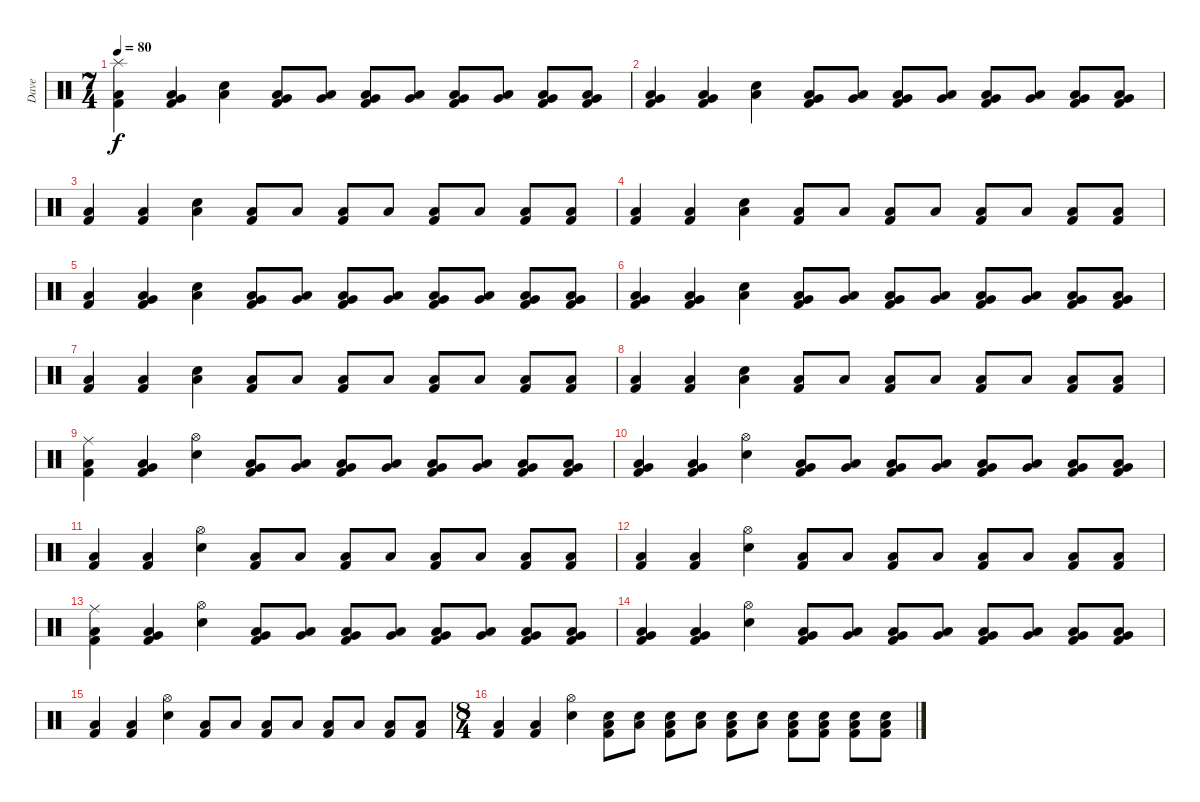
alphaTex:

\track ("Dave" "Dave") {instrument percussion}
\staff {score}
\articulation defaults
\ts (7 4)
\tempo 80
\clef neutral
\ks c
("Splash (hit)" "Low Floor Tom (hit)" "Kick (hit) 2").4{dy f} ("Very Low Tom (hit)" "Low Floor Tom (hit)" "Kick (hit) 2").4 ("Low Floor Tom (hit)" "Electric Snare (hit)").4 ("Very Low Tom (hit)" "Low Floor Tom (hit)" "Kick (hit) 2").8 ("Very Low Tom (hit)" "Low Floor Tom (hit)").8 ("Very Low Tom (hit)" "Low Floor Tom (hit)" "Kick (hit) 2").8 ("Very Low Tom (hit)" "Low Floor Tom (hit)").8 ("Very Low Tom (hit)" "Low Floor Tom (hit)" "Kick (hit) 2").8 ("Very Low Tom (hit)" "Low Floor Tom (hit)").8 ("Very Low Tom (hit)" "Low Floor Tom (hit)" "Kick (hit) 2").8 ("Very Low Tom (hit)" "Low Floor Tom (hit)" "Kick (hit) 2").8 |
("Very Low Tom (hit)" "Low Floor Tom (hit)" "Kick (hit) 2").4 ("Very Low Tom (hit)" "Low Floor Tom (hit)" "Kick (hit) 2").4 ("Low Floor Tom (hit)" "Electric Snare (hit)").4 ("Very Low Tom (hit)" "Low Floor Tom (hit)" "Kick (hit) 2").8 ("Very Low Tom (hit)" "Low Floor Tom (hit)").8 ("Very Low Tom (hit)" "Low Floor Tom (hit)" "Kick (hit) 2").8 ("Very Low Tom (hit)" "Low Floor Tom (hit)").8 ("Very Low Tom (hit)" "Low Floor Tom (hit)" "Kick (hit) 2").8 ("Very Low Tom (hit)" "Low Floor Tom (hit)").8 ("Very Low Tom (hit)" "Low Floor Tom (hit)" "Kick (hit) 2").8 ("Very Low Tom (hit)" "Low Floor Tom (hit)" "Kick (hit) 2").8 |
("Low Floor Tom (hit)" "Kick (hit) 2").4 ("Low Floor Tom (hit)" "Kick (hit) 2").4 ("Low Floor Tom (hit)" "Electric Snare (hit)").4 ("Low Floor Tom (hit)" "Kick (hit) 2").8 "Low Floor Tom (hit)".8 ("Low Floor Tom (hit)" "Kick (hit) 2").8 "Low Floor Tom (hit)".8 ("Low Floor Tom (hit)" "Kick (hit) 2").8 "Low Floor Tom (hit)".8 ("Low Floor Tom (hit)" "Kick (hit) 2").8 ("Low Floor Tom (hit)" "Kick (hit) 2").8 |
("Low Floor Tom (hit)" "Kick (hit) 2").4 ("Low Floor Tom (hit)" "Kick (hit) 2").4 ("Low Floor Tom (hit)" "Electric Snare (hit)").4 ("Low Floor Tom (hit)" "Kick (hit) 2").8 "Low Floor Tom (hit)".8 ("Low Floor Tom (hit)" "Kick (hit) 2").8 "Low Floor Tom (hit)".8 ("Low Floor Tom (hit)" "Kick (hit) 2").8 "Low Floor Tom (hit)".8 ("Low Floor Tom (hit)" "Kick (hit) 2").8 ("Low Floor Tom (hit)" "Kick (hit) 2").8 |
("Low Floor Tom (hit)" "Kick (hit) 2").4 ("Very Low Tom (hit)" "Low Floor Tom (hit)" "Kick (hit) 2").4 ("Low Floor Tom (hit)" "Electric Snare (hit)").4 ("Very Low Tom (hit)" "Low Floor Tom (hit)" "Kick (hit) 2").8 ("Very Low Tom (hit)" "Low Floor Tom (hit)").8 ("Very Low Tom (hit)" "Low Floor Tom (hit)" "Kick (hit) 2").8 ("Very Low Tom (hit)" "Low Floor Tom (hit)").8 ("Very Low Tom (hit)" "Low Floor Tom (hit)" "Kick (hit) 2").8 ("Very Low Tom (hit)" "Low Floor Tom (hit)").8 ("Very Low Tom (hit)" "Low Floor Tom (hit)" "Kick (hit) 2").8 ("Very Low Tom (hit)" "Low Floor Tom (hit)" "Kick (hit) 2").8 |
("Very Low Tom (hit)" "Low Floor Tom (hit)" "Kick (hit) 2").4 ("Very Low Tom (hit)" "Low Floor Tom (hit)" "Kick (hit) 2").4 ("Low Floor Tom (hit)" "Electric Snare (hit)").4 ("Very Low Tom (hit)" "Low Floor Tom (hit)" "Kick (hit) 2").8 ("Very Low Tom (hit)" "Low Floor Tom (hit)").8 ("Very Low Tom (hit)" "Low Floor Tom (hit)" "Kick (hit) 2").8 ("Very Low Tom (hit)" "Low Floor Tom (hit)").8 ("Very Low Tom (hit)" "Low Floor Tom (hit)" "Kick (hit) 2").8 ("Very Low Tom (hit)" "Low Floor Tom (hit)").8 ("Very Low Tom (hit)" "Low Floor Tom (hit)" "Kick (hit) 2").8 ("Very Low Tom (hit)" "Low Floor Tom (hit)" "Kick (hit) 2").8 |
("Low Floor Tom (hit)" "Kick (hit) 2").4 ("Low Floor Tom (hit)" "Kick (hit) 2").4 ("Low Floor Tom (hit)" "Electric Snare (hit)").4 ("Low Floor Tom (hit)" "Kick (hit) 2").8 "Low Floor Tom (hit)".8 ("Low Floor Tom (hit)" "Kick (hit) 2").8 "Low Floor Tom (hit)".8 ("Low Floor Tom (hit)" "Kick (hit) 2").8 "Low Floor Tom (hit)".8 ("Low Floor Tom (hit)" "Kick (hit) 2").8 ("Low Floor Tom (hit)" "Kick (hit) 2").8 |
("Low Floor Tom (hit)" "Kick (hit) 2").4 ("Low Floor Tom (hit)" "Kick (hit) 2").4 ("Low Floor Tom (hit)" "Electric Snare (hit)").4 ("Low Floor Tom (hit)" "Kick (hit) 2").8 "Low Floor Tom (hit)".8 ("Low Floor Tom (hit)" "Kick (hit) 2").8 "Low Floor Tom (hit)".8 ("Low Floor Tom (hit)" "Kick (hit) 2").8 "Low Floor Tom (hit)".8 ("Low Floor Tom (hit)" "Kick (hit) 2").8 ("Low Floor Tom (hit)" "Kick (hit) 2").8 |
("Ride (middle)" "Low Floor Tom (hit)" "Kick (hit) 2").4 ("Very Low Tom (hit)" "Low Floor Tom (hit)" "Kick (hit) 2").4 ("Hi-Hat (open)" "Electric Snare (hit)").4 ("Very Low Tom (hit)" "Low Floor Tom (hit)" "Kick (hit) 2").8 ("Very Low Tom (hit)" "Low Floor Tom (hit)").8 ("Very Low Tom (hit)" "Low Floor Tom (hit)" "Kick (hit) 2").8 ("Very Low Tom (hit)" "Low Floor Tom (hit)").8 ("Very Low Tom (hit)" "Low Floor Tom (hit)" "Kick (hit) 2").8 ("Very Low Tom (hit)" "Low Floor Tom (hit)").8 ("Very Low Tom (hit)" "Low Floor Tom (hit)" "Kick (hit) 2").8 ("Very Low Tom (hit)" "Low Floor Tom (hit)" "Kick (hit) 2").8 |
("Very Low Tom (hit)" "Low Floor Tom (hit)" "Kick (hit) 2").4 ("Very Low Tom (hit)" "Low Floor Tom (hit)" "Kick (hit) 2").4 ("Hi-Hat (open)" "Electric Snare (hit)").4 ("Very Low Tom (hit)" "Low Floor Tom (hit)" "Kick (hit) 2").8 ("Very Low Tom (hit)" "Low Floor Tom (hit)").8 ("Very Low Tom (hit)" "Low Floor Tom (hit)" "Kick (hit) 2").8 ("Very Low Tom (hit)" "Low Floor Tom (hit)").8 ("Very Low Tom (hit)" "Low Floor Tom (hit)" "Kick (hit) 2").8 ("Very Low Tom (hit)" "Low Floor Tom (hit)").8 ("Very Low Tom (hit)" "Low Floor Tom (hit)" "Kick (hit) 2").8 ("Very Low Tom (hit)" "Low Floor Tom (hit)" "Kick (hit) 2").8 |
("Low Floor Tom (hit)" "Kick (hit) 2").4 ("Low Floor Tom (hit)" "Kick (hit) 2").4 ("Hi-Hat (open)" "Electric Snare (hit)").4 ("Low Floor Tom (hit)" "Kick (hit) 2").8 "Low Floor Tom (hit)".8 ("Low Floor Tom (hit)" "Kick (hit) 2").8 "Low Floor Tom (hit)".8 ("Low Floor Tom (hit)" "Kick (hit) 2").8 "Low Floor Tom (hit)".8 ("Low Floor Tom (hit)" "Kick (hit) 2").8 ("Low Floor Tom (hit)" "Kick (hit) 2").8 |
("Low Floor Tom (hit)" "Kick (hit) 2").4 ("Low Floor Tom (hit)" "Kick (hit) 2").4 ("Hi-Hat (open)" "Electric Snare (hit)").4 ("Low Floor Tom (hit)" "Kick (hit) 2").8 "Low Floor Tom (hit)".8 ("Low Floor Tom (hit)" "Kick (hit) 2").8 "Low Floor Tom (hit)".8 ("Low Floor Tom (hit)" "Kick (hit) 2").8 "Low Floor Tom (hit)".8 ("Low Floor Tom (hit)" "Kick (hit) 2").8 ("Low Floor Tom (hit)" "Kick (hit) 2").8 |
("Ride (middle)" "Low Floor Tom (hit)" "Kick (hit) 2").4 ("Very Low Tom (hit)" "Low Floor Tom (hit)" "Kick (hit) 2").4 ("Hi-Hat (open)" "Electric Snare (hit)").4 ("Very Low Tom (hit)" "Low Floor Tom (hit)" "Kick (hit) 2").8 ("Very Low Tom (hit)" "Low Floor Tom (hit)").8 ("Very Low Tom (hit)" "Low Floor Tom (hit)" "Kick (hit) 2").8 ("Very Low Tom (hit)" "Low Floor Tom (hit)").8 ("Very Low Tom (hit)" "Low Floor Tom (hit)" "Kick (hit) 2").8 ("Very Low Tom (hit)" "Low Floor Tom (hit)").8 ("Very Low Tom (hit)" "Low Floor Tom (hit)" "Kick (hit) 2").8 ("Very Low Tom (hit)" "Low Floor Tom (hit)" "Kick (hit) 2").8 |
("Very Low Tom (hit)" "Low Floor Tom (hit)" "Kick (hit) 2").4 ("Very Low Tom (hit)" "Low Floor Tom (hit)" "Kick (hit) 2").4 ("Hi-Hat (open)" "Electric Snare (hit)").4 ("Very Low Tom (hit)" "Low Floor Tom (hit)" "Kick (hit) 2").8 ("Very Low Tom (hit)" "Low Floor Tom (hit)").8 ("Very Low Tom (hit)" "Low Floor Tom (hit)" "Kick (hit) 2").8 ("Very Low Tom (hit)" "Low Floor Tom (hit)").8 ("Very Low Tom (hit)" "Low Floor Tom (hit)" "Kick (hit) 2").8 ("Very Low Tom (hit)" "Low Floor Tom (hit)").8 ("Very Low Tom (hit)" "Low Floor Tom (hit)" "Kick (hit) 2").8 ("Very Low Tom (hit)" "Low Floor Tom (hit)" "Kick (hit) 2").8 |
("Low Floor Tom (hit)" "Kick (hit) 2").4 ("Low Floor Tom (hit)" "Kick (hit) 2").4 ("Hi-Hat (open)" "Electric Snare (hit)").4 ("Low Floor Tom (hit)" "Kick (hit) 2").8 "Low Floor Tom (hit)".8 ("Low Floor Tom (hit)" "Kick (hit) 2").8 "Low Floor Tom (hit)".8 ("Low Floor Tom (hit)" "Kick (hit) 2").8 "Low Floor Tom (hit)".8 ("Low Floor Tom (hit)" "Kick (hit) 2").8 ("Low Floor Tom (hit)" "Kick (hit) 2").8 |
\ts (8 4)
("Low Floor Tom (hit)" "Kick (hit) 2").4 ("Low Floor Tom (hit)" "Kick (hit) 2").4 ("Hi-Hat (open)" "Electric Snare (hit)").4 ("Electric Snare (hit)" "Low Floor Tom (hit)" "Kick (hit) 2").8 ("Electric Snare (hit)" "Low Floor Tom (hit)").8 ("Electric Snare (hit)" "Low Floor Tom (hit)" "Kick (hit) 2").8 ("Electric Snare (hit)" "Low Floor Tom (hit)").8 ("Electric Snare (hit)" "Low Floor Tom (hit)" "Kick (hit) 2").8 ("Electric Snare (hit)" "Low Floor Tom (hit)").8 ("Electric Snare (hit)" "Low Floor Tom (hit)" "Kick (hit) 2").8 ("Electric Snare (hit)" "Low Floor Tom (hit)" "Kick (hit) 2").8 ("Electric Snare (hit)" "Low Floor Tom (hit)" "Kick (hit) 2").8 ("Electric Snare (hit)" "Low Floor Tom (hit)" "Kick (hit) 2").8
